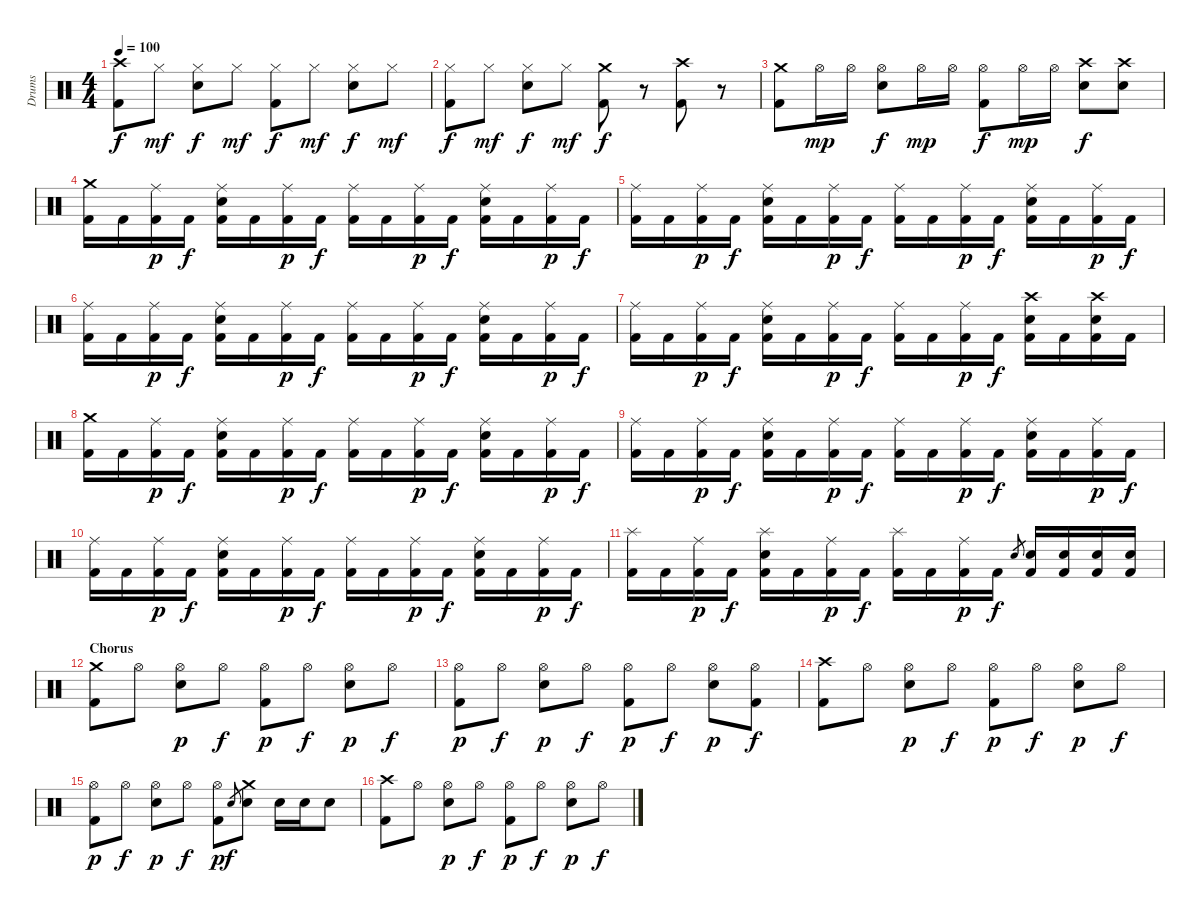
\track ("Drums" "Drums") {instrument percussion}
\staff {score}
\articulation defaults
\ts (4 4)
\tempo 100
\clef neutral
\ks c
("Crash high (hit)" "Kick (hit) 2").8{dy f} "Hi-Hat (closed)".8{dy mf} ("Hi-Hat (closed)" "Snare (hit) 2").8{dy f} "Hi-Hat (closed)".8{dy mf} ("Hi-Hat (closed)" "Kick (hit) 2").8{dy f} "Hi-Hat (closed)".8{dy mf} ("Hi-Hat (closed)" "Snare (hit) 2").8{dy f} "Hi-Hat (closed)".8{dy mf} |
("Hi-Hat (closed)" "Kick (hit) 2").8{dy f} "Hi-Hat (closed)".8{dy mf} ("Hi-Hat (closed)" "Snare (hit) 2").8{dy f} "Hi-Hat (closed)".8{dy mf} ("Crash medium (hit)" "Kick (hit) 2").8{dy f} r.8 ("Crash high (hit)" "Kick (hit) 2").8 r.8 |
("Crash medium (hit)" "Kick (hit) 2").8 "Hi-Hat (open)".16{dy mp} "Hi-Hat (open)".16 ("Hi-Hat (open)" "Snare (hit) 2").8{dy f} "Hi-Hat (open)".16{dy mp} "Hi-Hat (open)".16 ("Hi-Hat (open)" "Kick (hit) 2").8{dy f} "Hi-Hat (open)".16{dy mp} "Hi-Hat (open)".16 ("Crash high (hit)" "Snare (hit) 2").8{dy f} ("Crash high (hit)" "Snare (hit) 2").8 |
("Crash medium (hit)" "Kick (hit) 2").16 "Kick (hit) 2".16 ("Ride (middle)" "Kick (hit) 2").16{dy p} "Kick (hit) 2".16{dy f} ("Ride (middle)" "Snare (hit) 2" "Kick (hit) 2").16 "Kick (hit) 2".16 ("Ride (middle)" "Kick (hit) 2").16{dy p} "Kick (hit) 2".16{dy f} ("Ride (middle)" "Kick (hit) 2").16 "Kick (hit) 2".16 ("Ride (middle)" "Kick (hit) 2").16{dy p} "Kick (hit) 2".16{dy f} ("Ride (middle)" "Snare (hit) 2" "Kick (hit) 2").16 "Kick (hit) 2".16 ("Ride (middle)" "Kick (hit) 2").16{dy p} "Kick (hit) 2".16{dy f} |
("Ride (middle)" "Kick (hit) 2").16 "Kick (hit) 2".16 ("Ride (middle)" "Kick (hit) 2").16{dy p} "Kick (hit) 2".16{dy f} ("Ride (middle)" "Snare (hit) 2" "Kick (hit) 2").16 "Kick (hit) 2".16 ("Ride (middle)" "Kick (hit) 2").16{dy p} "Kick (hit) 2".16{dy f} ("Ride (middle)" "Kick (hit) 2").16 "Kick (hit) 2".16 ("Ride (middle)" "Kick (hit) 2").16{dy p} "Kick (hit) 2".16{dy f} ("Ride (middle)" "Snare (hit) 2" "Kick (hit) 2").16 "Kick (hit) 2".16 ("Ride (middle)" "Kick (hit) 2").16{dy p} "Kick (hit) 2".16{dy f} |
("Ride (middle)" "Kick (hit) 2").16 "Kick (hit) 2".16 ("Ride (middle)" "Kick (hit) 2").16{dy p} "Kick (hit) 2".16{dy f} ("Ride (middle)" "Snare (hit) 2" "Kick (hit) 2").16 "Kick (hit) 2".16 ("Ride (middle)" "Kick (hit) 2").16{dy p} "Kick (hit) 2".16{dy f} ("Ride (middle)" "Kick (hit) 2").16 "Kick (hit) 2".16 ("Ride (middle)" "Kick (hit) 2").16{dy p} "Kick (hit) 2".16{dy f} ("Ride (middle)" "Snare (hit) 2" "Kick (hit) 2").16 "Kick (hit) 2".16 ("Ride (middle)" "Kick (hit) 2").16{dy p} "Kick (hit) 2".16{dy f} |
("Ride (middle)" "Kick (hit) 2").16 "Kick (hit) 2".16 ("Ride (middle)" "Kick (hit) 2").16{dy p} "Kick (hit) 2".16{dy f} ("Ride (middle)" "Snare (hit) 2" "Kick (hit) 2").16 "Kick (hit) 2".16 ("Ride (middle)" "Kick (hit) 2").16{dy p} "Kick (hit) 2".16{dy f} ("Ride (middle)" "Kick (hit) 2").16 "Kick (hit) 2".16 ("Ride (middle)" "Kick (hit) 2").16{dy p} "Kick (hit) 2".16{dy f} ("Crash high (hit)" "Snare (hit) 2" "Kick (hit) 2").16 "Kick (hit) 2".16 ("Crash high (hit)" "Snare (hit) 2" "Kick (hit) 2").16 "Kick (hit) 2".16 |
("Crash medium (hit)" "Kick (hit) 2").16 "Kick (hit) 2".16 ("Ride (middle)" "Kick (hit) 2").16{dy p} "Kick (hit) 2".16{dy f} ("Ride (middle)" "Snare (hit) 2" "Kick (hit) 2").16 "Kick (hit) 2".16 ("Ride (middle)" "Kick (hit) 2").16{dy p} "Kick (hit) 2".16{dy f} ("Ride (middle)" "Kick (hit) 2").16 "Kick (hit) 2".16 ("Ride (middle)" "Kick (hit) 2").16{dy p} "Kick (hit) 2".16{dy f} ("Ride (middle)" "Snare (hit) 2" "Kick (hit) 2").16 "Kick (hit) 2".16 ("Ride (middle)" "Kick (hit) 2").16{dy p} "Kick (hit) 2".16{dy f} |
("Ride (middle)" "Kick (hit) 2").16 "Kick (hit) 2".16 ("Ride (middle)" "Kick (hit) 2").16{dy p} "Kick (hit) 2".16{dy f} ("Ride (middle)" "Snare (hit) 2" "Kick (hit) 2").16 "Kick (hit) 2".16 ("Ride (middle)" "Kick (hit) 2").16{dy p} "Kick (hit) 2".16{dy f} ("Ride (middle)" "Kick (hit) 2").16 "Kick (hit) 2".16 ("Ride (middle)" "Kick (hit) 2").16{dy p} "Kick (hit) 2".16{dy f} ("Ride (middle)" "Snare (hit) 2" "Kick (hit) 2").16 "Kick (hit) 2".16 ("Ride (middle)" "Kick (hit) 2").16{dy p} "Kick (hit) 2".16{dy f} |
("Ride (middle)" "Kick (hit) 2").16 "Kick (hit) 2".16 ("Ride (middle)" "Kick (hit) 2").16{dy p} "Kick (hit) 2".16{dy f} ("Ride (middle)" "Snare (hit) 2" "Kick (hit) 2").16 "Kick (hit) 2".16 ("Ride (middle)" "Kick (hit) 2").16{dy p} "Kick (hit) 2".16{dy f} ("Ride (middle)" "Kick (hit) 2").16 "Kick (hit) 2".16 ("Ride (middle)" "Kick (hit) 2").16{dy p} "Kick (hit) 2".16{dy f} ("Ride (middle)" "Snare (hit) 2" "Kick (hit) 2").16 "Kick (hit) 2".16 ("Ride (middle)" "Kick (hit) 2").16{dy p} "Kick (hit) 2".16{dy f} |
("Splash (hit)" "Kick (hit) 2").16 "Kick (hit) 2".16 ("Ride (middle)" "Kick (hit) 2").16{dy p} "Kick (hit) 2".16{dy f} ("Splash (hit)" "Snare (hit) 2" "Kick (hit) 2").16 "Kick (hit) 2".16 ("Ride (middle)" "Kick (hit) 2").16{dy p} "Kick (hit) 2".16{dy f} ("Splash (hit)" "Kick (hit) 2").16 "Kick (hit) 2".16 ("Ride (middle)" "Kick (hit) 2").16{dy p} "Kick (hit) 2".16{dy f} "Snare (hit) 2".8{gr} ("Snare (hit) 2" "Kick (hit) 2").16 ("Snare (hit) 2" "Kick (hit) 2").16 ("Snare (hit) 2" "Kick (hit) 2").16 ("Snare (hit) 2" "Kick (hit) 2").16 |
\section ("" "Chorus")
("Crash medium (hit)" "Kick (hit) 2").8 "Hi-Hat (open)".8 ("Hi-Hat (open)" "Snare (hit) 2").8{dy p} "Hi-Hat (open)".8{dy f} ("Hi-Hat (open)" "Kick (hit) 2").8{dy p} "Hi-Hat (open)".8{dy f} ("Hi-Hat (open)" "Snare (hit) 2").8{dy p} "Hi-Hat (open)".8{dy f} |
("Hi-Hat (open)" "Kick (hit) 2").8{dy p} "Hi-Hat (open)".8{dy f} ("Hi-Hat (open)" "Snare (hit) 2").8{dy p} "Hi-Hat (open)".8{dy f} ("Hi-Hat (open)" "Kick (hit) 2").8{dy p} "Hi-Hat (open)".8{dy f} ("Hi-Hat (open)" "Snare (hit) 2").8{dy p} ("Hi-Hat (open)" "Kick (hit) 2").8{dy f} |
("Crash high (hit)" "Kick (hit) 2").8 "Hi-Hat (open)".8 ("Hi-Hat (open)" "Snare (hit) 2").8{dy p} "Hi-Hat (open)".8{dy f} ("Hi-Hat (open)" "Kick (hit) 2").8{dy p} "Hi-Hat (open)".8{dy f} ("Hi-Hat (open)" "Snare (hit) 2").8{dy p} "Hi-Hat (open)".8{dy f} |
("Hi-Hat (open)" "Kick (hit) 2").8{dy p} "Hi-Hat (open)".8{dy f} ("Hi-Hat (open)" "Snare (hit) 2").8{dy p} "Hi-Hat (open)".8{dy f} ("Hi-Hat (open)" "Kick (hit) 2").8{dy p} "Snare (hit) 2".8{gr dy f} ("Crash medium (hit)" "Snare (hit) 2").8 "Snare (hit) 2".16 "Snare (hit) 2".16 "Snare (hit) 2".8 |
("Crash high (hit)" "Kick (hit) 2").8 "Hi-Hat (open)".8 ("Hi-Hat (open)" "Snare (hit) 2").8{dy p} "Hi-Hat (open)".8{dy f} ("Hi-Hat (open)" "Kick (hit) 2").8{dy p} "Hi-Hat (open)".8{dy f} ("Hi-Hat (open)" "Snare (hit) 2").8{dy p} "Hi-Hat (open)".8{dy f}
